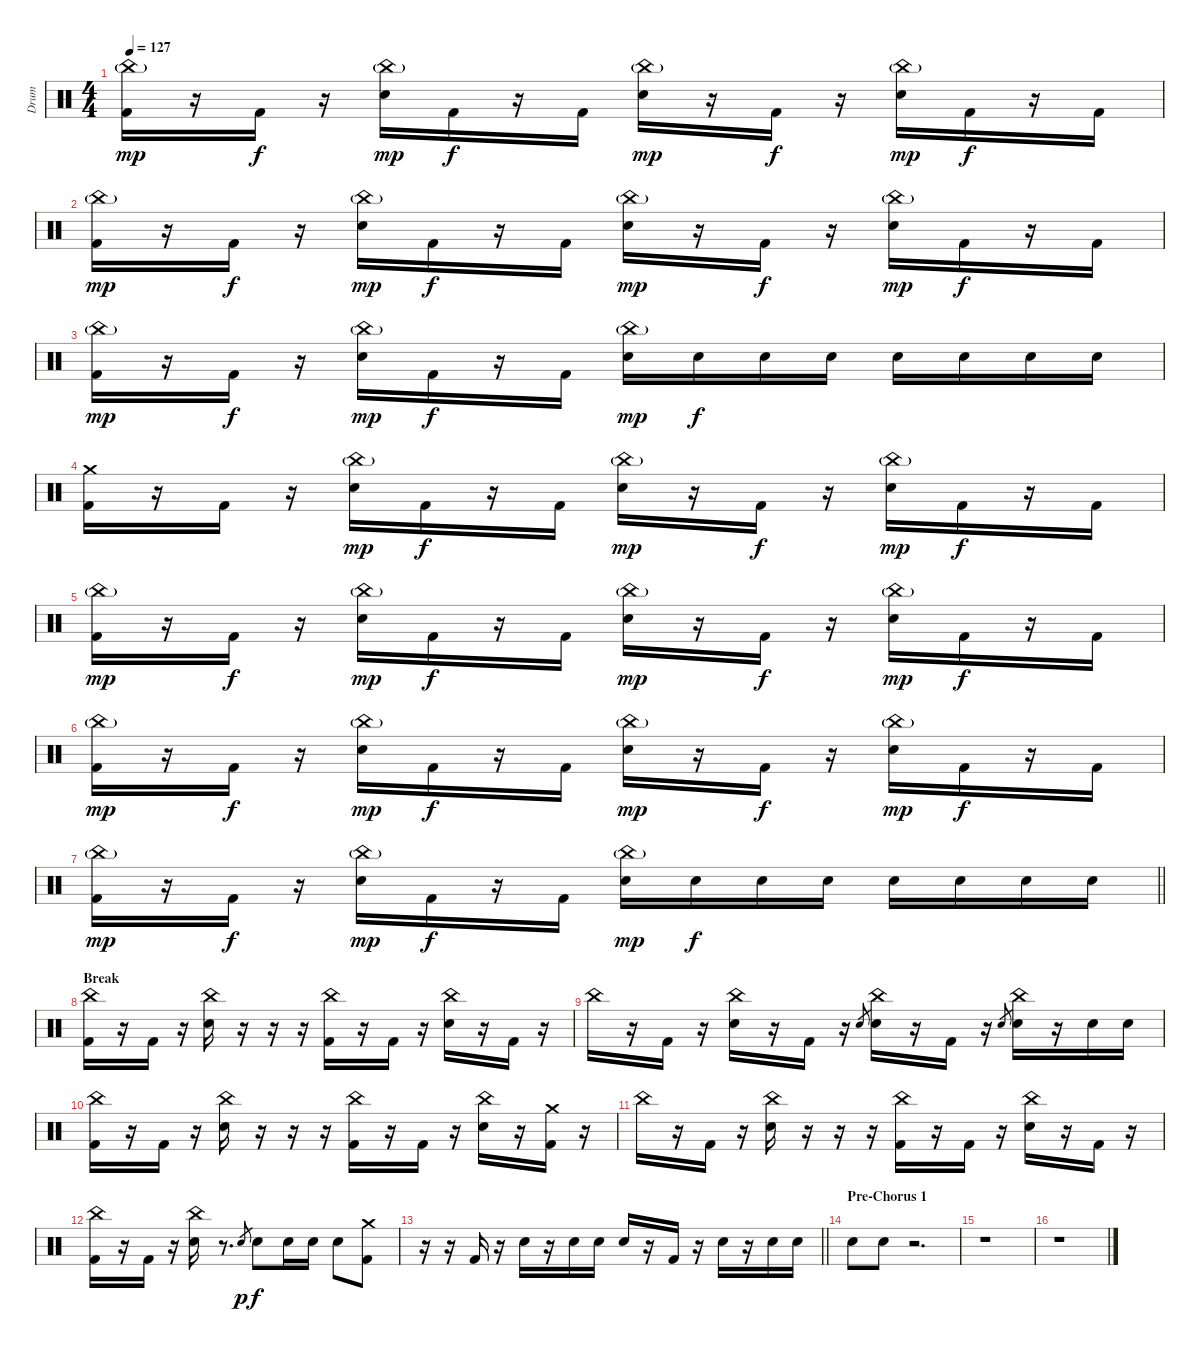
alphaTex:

\track ("Drum" "Drum") {instrument percussion}
\staff {score}
\articulation defaults
\ts (4 4)
\tempo 127
\clef neutral
\ks c
("China (hit)"{g} "Kick (hit) 2").16{dy mp} r.16 "Kick (hit) 2".16{dy f} r.16 ("China (hit)"{g} "Electric Snare (hit)").16{dy mp} "Kick (hit) 2".16{dy f} r.16 "Kick (hit) 2".16 ("China (hit)"{g} "Electric Snare (hit)").16{dy mp} r.16 "Kick (hit) 2".16{dy f} r.16 ("China (hit)"{g} "Electric Snare (hit)").16{dy mp} "Kick (hit) 2".16{dy f} r.16 "Kick (hit) 2".16 |
("China (hit)"{g} "Kick (hit) 2").16{dy mp} r.16 "Kick (hit) 2".16{dy f} r.16 ("China (hit)"{g} "Electric Snare (hit)").16{dy mp} "Kick (hit) 2".16{dy f} r.16 "Kick (hit) 2".16 ("China (hit)"{g} "Electric Snare (hit)").16{dy mp} r.16 "Kick (hit) 2".16{dy f} r.16 ("China (hit)"{g} "Electric Snare (hit)").16{dy mp} "Kick (hit) 2".16{dy f} r.16 "Kick (hit) 2".16 |
("China (hit)"{g} "Kick (hit) 2").16{dy mp} r.16 "Kick (hit) 2".16{dy f} r.16 ("China (hit)"{g} "Electric Snare (hit)").16{dy mp} "Kick (hit) 2".16{dy f} r.16 "Kick (hit) 2".16 ("China (hit)"{g} "Electric Snare (hit)").16{dy mp} "Electric Snare (hit)".16{dy f} "Electric Snare (hit)".16 "Electric Snare (hit)".16 "Electric Snare (hit)".16 "Electric Snare (hit)".16 "Electric Snare (hit)".16 "Electric Snare (hit)".16 |
("Crash medium (hit)" "Kick (hit) 2").16 r.16 "Kick (hit) 2".16 r.16 ("China (hit)"{g} "Electric Snare (hit)").16{dy mp} "Kick (hit) 2".16{dy f} r.16 "Kick (hit) 2".16 ("China (hit)"{g} "Electric Snare (hit)").16{dy mp} r.16 "Kick (hit) 2".16{dy f} r.16 ("China (hit)"{g} "Electric Snare (hit)").16{dy mp} "Kick (hit) 2".16{dy f} r.16 "Kick (hit) 2".16 |
("China (hit)"{g} "Kick (hit) 2").16{dy mp} r.16 "Kick (hit) 2".16{dy f} r.16 ("China (hit)"{g} "Electric Snare (hit)").16{dy mp} "Kick (hit) 2".16{dy f} r.16 "Kick (hit) 2".16 ("China (hit)"{g} "Electric Snare (hit)").16{dy mp} r.16 "Kick (hit) 2".16{dy f} r.16 ("China (hit)"{g} "Electric Snare (hit)").16{dy mp} "Kick (hit) 2".16{dy f} r.16 "Kick (hit) 2".16 |
("China (hit)"{g} "Kick (hit) 2").16{dy mp} r.16 "Kick (hit) 2".16{dy f} r.16 ("China (hit)"{g} "Electric Snare (hit)").16{dy mp} "Kick (hit) 2".16{dy f} r.16 "Kick (hit) 2".16 ("China (hit)"{g} "Electric Snare (hit)").16{dy mp} r.16 "Kick (hit) 2".16{dy f} r.16 ("China (hit)"{g} "Electric Snare (hit)").16{dy mp} "Kick (hit) 2".16{dy f} r.16 "Kick (hit) 2".16 |
\barLineRight lightlight
("China (hit)"{g} "Kick (hit) 2").16{dy mp} r.16 "Kick (hit) 2".16{dy f} r.16 ("China (hit)"{g} "Electric Snare (hit)").16{dy mp} "Kick (hit) 2".16{dy f} r.16 "Kick (hit) 2".16 ("China (hit)"{g} "Electric Snare (hit)").16{dy mp} "Electric Snare (hit)".16{dy f} "Electric Snare (hit)".16 "Electric Snare (hit)".16 "Electric Snare (hit)".16 "Electric Snare (hit)".16 "Electric Snare (hit)".16 "Electric Snare (hit)".16 |
\section ("" "Break")
("China (hit)" "Kick (hit) 2").16 r.16 "Kick (hit) 2".16 r.16 ("China (hit)" "Electric Snare (hit)").16 r.16 r.16 r.16 ("China (hit)" "Kick (hit) 2").16 r.16 "Kick (hit) 2".16 r.16 ("China (hit)" "Electric Snare (hit)").16 r.16 "Kick (hit) 2".16 r.16 |
"China (hit)".16 r.16 "Kick (hit) 2".16 r.16 ("China (hit)" "Electric Snare (hit)").16 r.16 "Kick (hit) 2".16 r.16 "Electric Snare (hit)".8{gr} ("China (hit)" "Electric Snare (hit)").16 r.16 "Kick (hit) 2".16 r.16 "Electric Snare (hit)".8{gr} ("China (hit)" "Electric Snare (hit)").16 r.16 "Electric Snare (hit)".16 "Electric Snare (hit)".16 |
("China (hit)" "Kick (hit) 2").16 r.16 "Kick (hit) 2".16 r.16 ("China (hit)" "Electric Snare (hit)").16 r.16 r.16 r.16 ("China (hit)" "Kick (hit) 2").16 r.16 "Kick (hit) 2".16 r.16 ("China (hit)" "Electric Snare (hit)").16 r.16 ("Crash medium (hit)" "Kick (hit) 2").16 r.16 |
"China (hit)".16 r.16 "Kick (hit) 2".16 r.16 ("China (hit)" "Electric Snare (hit)").16 r.16 r.16 r.16 ("China (hit)" "Kick (hit) 2").16 r.16 "Kick (hit) 2".16 r.16 ("China (hit)" "Electric Snare (hit)").16 r.16 "Kick (hit) 2".16 r.16 |
("China (hit)" "Kick (hit) 2").16 r.16 "Kick (hit) 2".16 r.16 ("China (hit)" "Electric Snare (hit)").16 r.8{d} "Electric Snare (hit)".8{gr dy p} "Electric Snare (hit)".8{dy f} "Electric Snare (hit)".16 "Electric Snare (hit)".16 "Electric Snare (hit)".8 ("Crash medium (hit)" "Kick (hit) 2").8 |
\barLineRight lightlight
r.16 r.16 "Kick (hit) 2".16 r.16 "Electric Snare (hit)".16 r.16 "Electric Snare (hit)".16 "Electric Snare (hit)".16 "Electric Snare (hit)".16 r.16 "Kick (hit) 2".16 r.16 "Electric Snare (hit)".16 r.16 "Electric Snare (hit)".16 "Electric Snare (hit)".16 |
\section ("" "Pre-Chorus 1")
"Electric Snare (hit)".8 "Electric Snare (hit)".8 r.2{d} |
r.1 |
r.1
